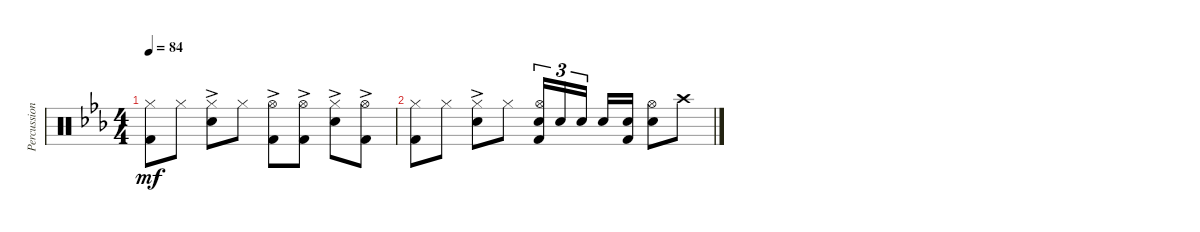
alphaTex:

\track ("Percussion" "Percussion") {instrument percussion}
\staff {score}
\articulation defaults
\ts (4 4)
\tempo 84
\clef neutral
\ks cminor
("Hi-Hat (closed)" "Kick (hit) 2").8{dy mf} "Hi-Hat (closed)".8 ("Hi-Hat (closed)" "Snare (hit) 2"{ac}).8 "Hi-Hat (closed)".8 ("Hi-Hat (open)"{ac} "Kick (hit) 2").8 ("Hi-Hat (open)"{ac} "Kick (hit) 2").8 ("Hi-Hat (closed)" "Snare (hit) 2"{ac}).8 ("Hi-Hat (open)"{ac} "Kick (hit) 2").8 |
("Hi-Hat (closed)" "Kick (hit) 2").8 "Hi-Hat (closed)".8 ("Hi-Hat (closed)" "Snare (hit) 2"{ac}).8 "Hi-Hat (closed)".8 ("Hi-Hat (open)" "Electric Snare (hit)" "Kick (hit) 2").16{tu (3 2)} "Electric Snare (hit)".16{tu (3 2)} "Electric Snare (hit)".16{tu (3 2) beam splitsecondary} "Electric Snare (hit)".16 ("Electric Snare (hit)" "Kick (hit) 2").16 ("Hi-Hat (open)" "Electric Snare (hit)").8 "Crash high (hit)".8
